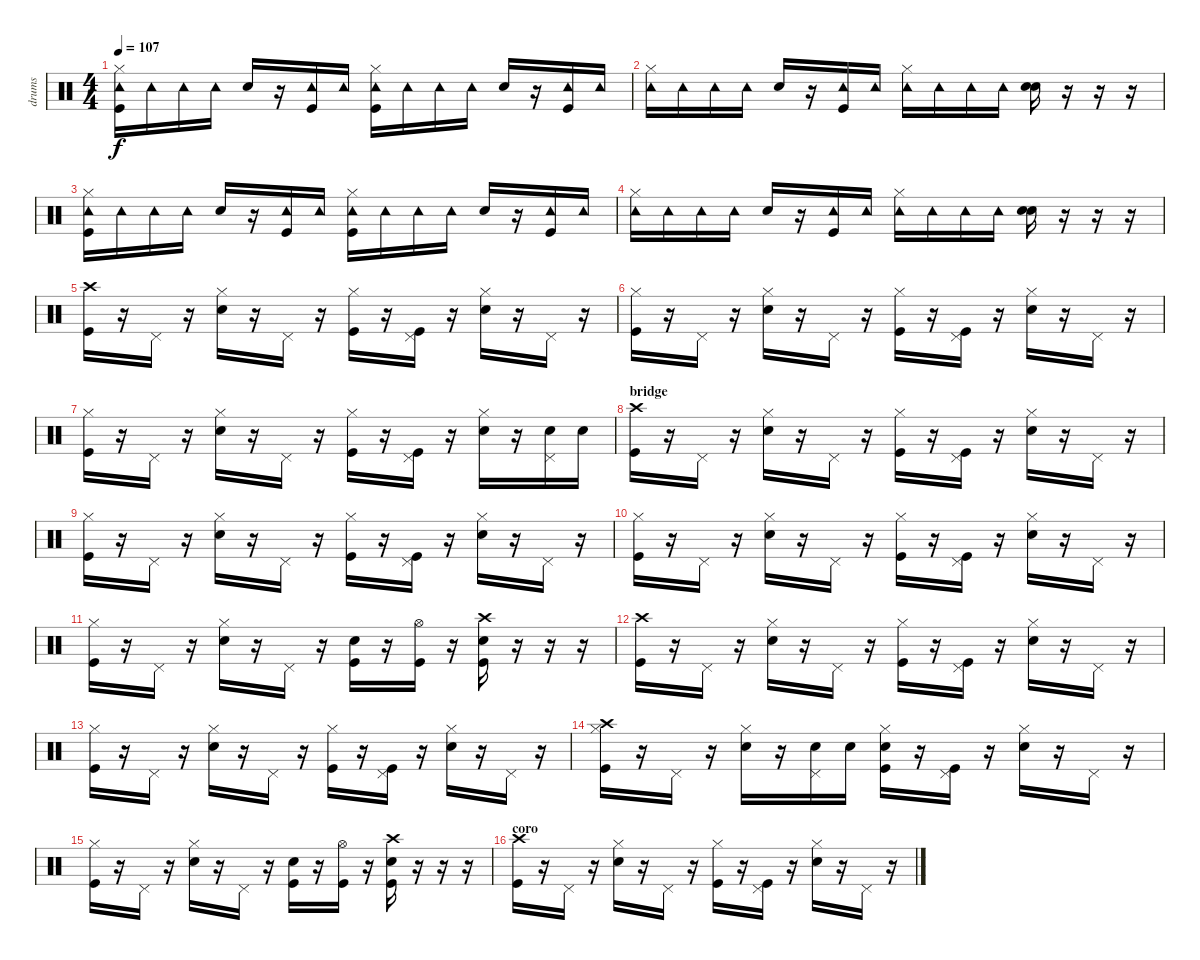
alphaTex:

\track ("drums" "drums") {instrument percussion}
\staff {score}
\articulation defaults
\ts (4 4)
\tempo 107
\clef neutral
\ks c
("Hi-Hat (closed)" "Tambourine (hit)" "Kick (hit)").16{dy f} "Tambourine (hit)".16 "Tambourine (hit)".16 "Tambourine (hit)".16 "Snare (hit) 2".16 r.16 ("Tambourine (hit)" "Kick (hit)").16 "Tambourine (hit)".16 ("Hi-Hat (closed)" "Tambourine (hit)" "Kick (hit)").16 "Tambourine (hit)".16 "Tambourine (hit)".16 "Tambourine (hit)".16 "Snare (hit) 2".16 r.16 ("Tambourine (hit)" "Kick (hit)").16 "Tambourine (hit)".16 |
("Hi-Hat (closed)" "Tambourine (hit)").16 "Tambourine (hit)".16 "Tambourine (hit)".16 "Tambourine (hit)".16 "Snare (hit) 2".16 r.16 ("Tambourine (hit)" "Kick (hit)").16 "Tambourine (hit)".16 ("Hi-Hat (closed)" "Tambourine (hit)").16 "Tambourine (hit)".16 "Tambourine (hit)".16 "Tambourine (hit)".16 ("Snare (hit) 2" "Electric Snare (hit)").16 r.16 r.16 r.16 |
("Hi-Hat (closed)" "Tambourine (hit)" "Kick (hit)").16 "Tambourine (hit)".16 "Tambourine (hit)".16 "Tambourine (hit)".16 "Snare (hit) 2".16 r.16 ("Tambourine (hit)" "Kick (hit)").16 "Tambourine (hit)".16 ("Hi-Hat (closed)" "Tambourine (hit)" "Kick (hit)").16 "Tambourine (hit)".16 "Tambourine (hit)".16 "Tambourine (hit)".16 "Snare (hit) 2".16 r.16 ("Tambourine (hit)" "Kick (hit)").16 "Tambourine (hit)".16 |
("Hi-Hat (closed)" "Tambourine (hit)").16 "Tambourine (hit)".16 "Tambourine (hit)".16 "Tambourine (hit)".16 "Snare (hit) 2".16 r.16 ("Tambourine (hit)" "Kick (hit)").16 "Tambourine (hit)".16 ("Hi-Hat (closed)" "Tambourine (hit)").16 "Tambourine (hit)".16 "Tambourine (hit)".16 "Tambourine (hit)".16 ("Snare (hit) 2" "Electric Snare (hit)").16 r.16 r.16 r.16 |
("Crash high (hit)" "Kick (hit)").16 r.16 "Pedal Hi-Hat (hit)".16 r.16 ("Hi-Hat (closed)" "Snare (hit) 2").16 r.16 "Pedal Hi-Hat (hit)".16 r.16 ("Hi-Hat (closed)" "Kick (hit)").16 r.16 ("Pedal Hi-Hat (hit)" "Kick (hit)").16 r.16 ("Hi-Hat (closed)" "Snare (hit) 2").16 r.16 "Pedal Hi-Hat (hit)".16 r.16 |
("Hi-Hat (closed)" "Kick (hit)").16 r.16 "Pedal Hi-Hat (hit)".16 r.16 ("Hi-Hat (closed)" "Snare (hit) 2").16 r.16 "Pedal Hi-Hat (hit)".16 r.16 ("Hi-Hat (closed)" "Kick (hit)").16 r.16 ("Pedal Hi-Hat (hit)" "Kick (hit)").16 r.16 ("Hi-Hat (closed)" "Snare (hit) 2").16 r.16 "Pedal Hi-Hat (hit)".16 r.16 |
("Hi-Hat (closed)" "Kick (hit)").16 r.16 "Pedal Hi-Hat (hit)".16 r.16 ("Hi-Hat (closed)" "Snare (hit) 2").16 r.16 "Pedal Hi-Hat (hit)".16 r.16 ("Hi-Hat (closed)" "Kick (hit)").16 r.16 ("Pedal Hi-Hat (hit)" "Kick (hit)").16 r.16 ("Hi-Hat (closed)" "Snare (hit) 2").16 r.16 ("Pedal Hi-Hat (hit)" "Snare (hit) 2").16 "Snare (hit) 2".16 |
\section ("" "bridge")
("Crash high (hit)" "Kick (hit)").16 r.16 "Pedal Hi-Hat (hit)".16 r.16 ("Hi-Hat (closed)" "Snare (hit) 2").16 r.16 "Pedal Hi-Hat (hit)".16 r.16 ("Hi-Hat (closed)" "Kick (hit)").16 r.16 ("Pedal Hi-Hat (hit)" "Kick (hit)").16 r.16 ("Hi-Hat (closed)" "Snare (hit) 2").16 r.16 "Pedal Hi-Hat (hit)".16 r.16 |
("Hi-Hat (closed)" "Kick (hit)").16 r.16 "Pedal Hi-Hat (hit)".16 r.16 ("Hi-Hat (closed)" "Snare (hit) 2").16 r.16 "Pedal Hi-Hat (hit)".16 r.16 ("Hi-Hat (closed)" "Kick (hit)").16 r.16 ("Pedal Hi-Hat (hit)" "Kick (hit)").16 r.16 ("Hi-Hat (closed)" "Snare (hit) 2").16 r.16 "Pedal Hi-Hat (hit)".16 r.16 |
("Hi-Hat (closed)" "Kick (hit)").16 r.16 "Pedal Hi-Hat (hit)".16 r.16 ("Hi-Hat (closed)" "Snare (hit) 2").16 r.16 "Pedal Hi-Hat (hit)".16 r.16 ("Hi-Hat (closed)" "Kick (hit)").16 r.16 ("Pedal Hi-Hat (hit)" "Kick (hit)").16 r.16 ("Hi-Hat (closed)" "Snare (hit) 2").16 r.16 "Pedal Hi-Hat (hit)".16 r.16 |
("Hi-Hat (closed)" "Kick (hit)").16 r.16 "Pedal Hi-Hat (hit)".16 r.16 ("Hi-Hat (closed)" "Snare (hit) 2").16 r.16 "Pedal Hi-Hat (hit)".16 r.16 ("Snare (hit) 2" "Kick (hit)").16 r.16 ("Hi-Hat (open)" "Kick (hit)").16 r.16 ("Crash high (hit)" "Snare (hit) 2" "Kick (hit)").16 r.16 r.16 r.16 |
("Crash high (hit)" "Kick (hit)").16 r.16 "Pedal Hi-Hat (hit)".16 r.16 ("Hi-Hat (closed)" "Snare (hit) 2").16 r.16 "Pedal Hi-Hat (hit)".16 r.16 ("Hi-Hat (closed)" "Kick (hit)").16 r.16 ("Pedal Hi-Hat (hit)" "Kick (hit)").16 r.16 ("Hi-Hat (closed)" "Snare (hit) 2").16 r.16 "Pedal Hi-Hat (hit)".16 r.16 |
("Hi-Hat (closed)" "Kick (hit)").16 r.16 "Pedal Hi-Hat (hit)".16 r.16 ("Hi-Hat (closed)" "Snare (hit) 2").16 r.16 "Pedal Hi-Hat (hit)".16 r.16 ("Hi-Hat (closed)" "Kick (hit)").16 r.16 ("Pedal Hi-Hat (hit)" "Kick (hit)").16 r.16 ("Hi-Hat (closed)" "Snare (hit) 2").16 r.16 "Pedal Hi-Hat (hit)".16 r.16 |
("Crash high (hit)" "Hi-Hat (closed)" "Kick (hit)").16 r.16 "Pedal Hi-Hat (hit)".16 r.16 ("Hi-Hat (closed)" "Snare (hit) 2").16 r.16 ("Pedal Hi-Hat (hit)" "Snare (hit) 2").16 "Snare (hit) 2".16 ("Hi-Hat (closed)" "Snare (hit) 2" "Kick (hit)").16 r.16 ("Pedal Hi-Hat (hit)" "Kick (hit)").16 r.16 ("Hi-Hat (closed)" "Snare (hit) 2").16 r.16 "Pedal Hi-Hat (hit)".16 r.16 |
("Hi-Hat (closed)" "Kick (hit)").16 r.16 "Pedal Hi-Hat (hit)".16 r.16 ("Hi-Hat (closed)" "Snare (hit) 2").16 r.16 "Pedal Hi-Hat (hit)".16 r.16 ("Snare (hit) 2" "Kick (hit)").16 r.16 ("Hi-Hat (open)" "Kick (hit)").16 r.16 ("Crash high (hit)" "Snare (hit) 2" "Kick (hit)").16 r.16 r.16 r.16 |
\section ("" "coro")
("Crash high (hit)" "Kick (hit)").16 r.16 "Pedal Hi-Hat (hit)".16 r.16 ("Hi-Hat (closed)" "Snare (hit) 2").16 r.16 "Pedal Hi-Hat (hit)".16 r.16 ("Hi-Hat (closed)" "Kick (hit)").16 r.16 ("Pedal Hi-Hat (hit)" "Kick (hit)").16 r.16 ("Hi-Hat (closed)" "Snare (hit) 2").16 r.16 "Pedal Hi-Hat (hit)".16 r.16
